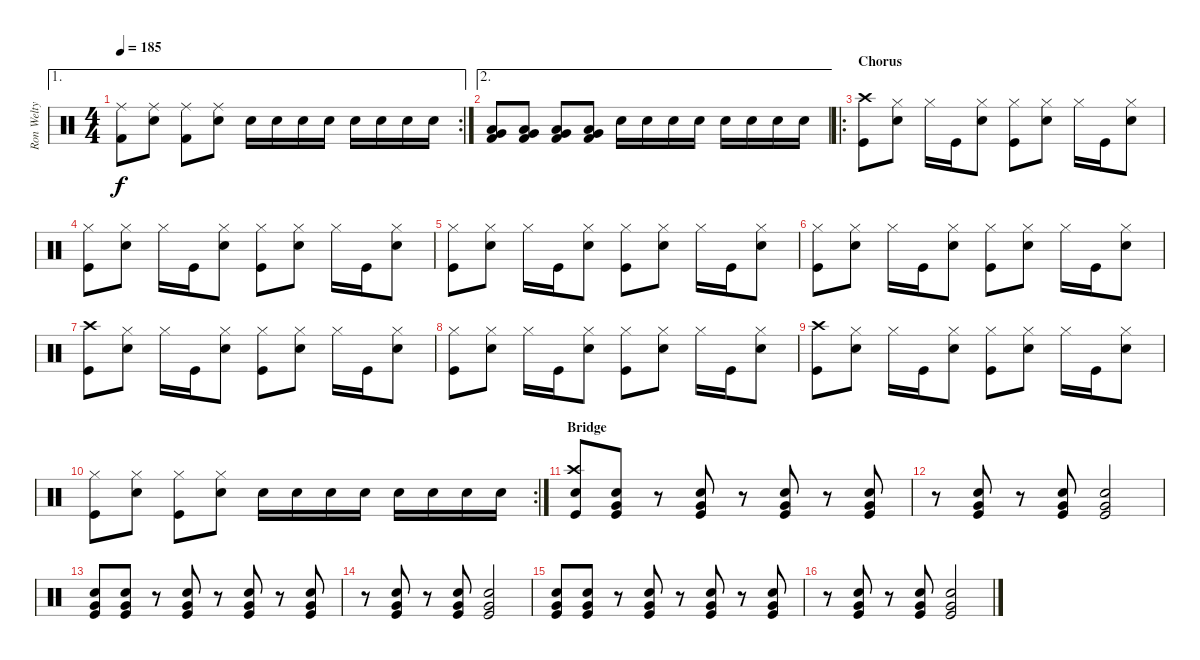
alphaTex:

\track ("Ron Welty" "Ron Welty") {instrument percussion}
\staff {score}
\articulation defaults
\ae 1
\rc 2
\ts (4 4)
\tempo 185
\clef neutral
\ks c
("Ride (middle)" "Kick (hit) 2").8{dy f} ("Ride (middle)" "Electric Snare (hit)").8 ("Ride (middle)" "Kick (hit) 2").8 ("Ride (middle)" "Electric Snare (hit)").8 "Electric Snare (hit)".16 "Electric Snare (hit)".16 "Electric Snare (hit)".16 "Electric Snare (hit)".16 "Electric Snare (hit)".16 "Electric Snare (hit)".16 "Electric Snare (hit)".16 "Electric Snare (hit)".16 |
\ae 2
("Low Tom (hit)" "Very Low Tom (hit)" "Kick (hit) 2").8 ("Low Tom (hit)" "Very Low Tom (hit)" "Kick (hit) 2").8 ("Low Tom (hit)" "Very Low Tom (hit)" "Kick (hit) 2").8 ("Low Tom (hit)" "Very Low Tom (hit)" "Kick (hit) 2").8 "Electric Snare (hit)".16 "Electric Snare (hit)".16 "Electric Snare (hit)".16 "Electric Snare (hit)".16 "Electric Snare (hit)".16 "Electric Snare (hit)".16 "Electric Snare (hit)".16 "Electric Snare (hit)".16 |
\ro
\section ("" "Chorus")
("Crash high (hit)" "Kick (hit)").8 ("Hi-Hat (closed)" "Electric Snare (hit)").8 "Hi-Hat (closed)".16 "Kick (hit)".16 ("Hi-Hat (closed)" "Electric Snare (hit)").8 ("Hi-Hat (closed)" "Kick (hit)").8 ("Hi-Hat (closed)" "Electric Snare (hit)").8 "Hi-Hat (closed)".16 "Kick (hit)".16 ("Hi-Hat (closed)" "Electric Snare (hit)").8 |
("Hi-Hat (closed)" "Kick (hit)").8 ("Hi-Hat (closed)" "Electric Snare (hit)").8 "Hi-Hat (closed)".16 "Kick (hit)".16 ("Hi-Hat (closed)" "Electric Snare (hit)").8 ("Hi-Hat (closed)" "Kick (hit)").8 ("Hi-Hat (closed)" "Electric Snare (hit)").8 "Hi-Hat (closed)".16 "Kick (hit)".16 ("Hi-Hat (closed)" "Electric Snare (hit)").8 |
("Hi-Hat (closed)" "Kick (hit)").8 ("Hi-Hat (closed)" "Electric Snare (hit)").8 "Hi-Hat (closed)".16 "Kick (hit)".16 ("Hi-Hat (closed)" "Electric Snare (hit)").8 ("Hi-Hat (closed)" "Kick (hit)").8 ("Hi-Hat (closed)" "Electric Snare (hit)").8 "Hi-Hat (closed)".16 "Kick (hit)".16 ("Hi-Hat (closed)" "Electric Snare (hit)").8 |
("Hi-Hat (closed)" "Kick (hit)").8 ("Hi-Hat (closed)" "Electric Snare (hit)").8 "Hi-Hat (closed)".16 "Kick (hit)".16 ("Hi-Hat (closed)" "Electric Snare (hit)").8 ("Hi-Hat (closed)" "Kick (hit)").8 ("Hi-Hat (closed)" "Electric Snare (hit)").8 "Hi-Hat (closed)".16 "Kick (hit)".16 ("Hi-Hat (closed)" "Electric Snare (hit)").8 |
("Crash high (hit)" "Kick (hit)").8 ("Hi-Hat (closed)" "Electric Snare (hit)").8 "Hi-Hat (closed)".16 "Kick (hit)".16 ("Hi-Hat (closed)" "Electric Snare (hit)").8 ("Hi-Hat (closed)" "Kick (hit)").8 ("Hi-Hat (closed)" "Electric Snare (hit)").8 "Hi-Hat (closed)".16 "Kick (hit)".16 ("Hi-Hat (closed)" "Electric Snare (hit)").8 |
("Hi-Hat (closed)" "Kick (hit)").8 ("Hi-Hat (closed)" "Electric Snare (hit)").8 "Hi-Hat (closed)".16 "Kick (hit)".16 ("Hi-Hat (closed)" "Electric Snare (hit)").8 ("Hi-Hat (closed)" "Kick (hit)").8 ("Hi-Hat (closed)" "Electric Snare (hit)").8 "Hi-Hat (closed)".16 "Kick (hit)".16 ("Hi-Hat (closed)" "Electric Snare (hit)").8 |
("Crash high (hit)" "Kick (hit)").8 ("Hi-Hat (closed)" "Electric Snare (hit)").8 "Hi-Hat (closed)".16 "Kick (hit)".16 ("Hi-Hat (closed)" "Electric Snare (hit)").8 ("Hi-Hat (closed)" "Kick (hit)").8 ("Hi-Hat (closed)" "Electric Snare (hit)").8 "Hi-Hat (closed)".16 "Kick (hit)".16 ("Hi-Hat (closed)" "Electric Snare (hit)").8 |
\rc 2
("Hi-Hat (closed)" "Kick (hit)").8 ("Hi-Hat (closed)" "Electric Snare (hit)").8 ("Hi-Hat (closed)" "Kick (hit)").8 ("Hi-Hat (closed)" "Electric Snare (hit)").8 "Electric Snare (hit)".16 "Electric Snare (hit)".16 "Electric Snare (hit)".16 "Electric Snare (hit)".16 "Electric Snare (hit)".16 "Electric Snare (hit)".16 "Electric Snare (hit)".16 "Electric Snare (hit)".16 |
\section ("" "Bridge")
("Crash high (hit)" "Electric Snare (hit)" "Kick (hit)").8 ("Very Low Tom (hit)" "Electric Snare (hit)" "Kick (hit)").8 r.8 ("Very Low Tom (hit)" "Electric Snare (hit)" "Kick (hit)").8 r.8 ("Very Low Tom (hit)" "Electric Snare (hit)" "Kick (hit)").8 r.8 ("Very Low Tom (hit)" "Electric Snare (hit)" "Kick (hit)").8 |
r.8 ("Very Low Tom (hit)" "Electric Snare (hit)" "Kick (hit)").8 r.8 ("Very Low Tom (hit)" "Electric Snare (hit)" "Kick (hit)").8 ("Very Low Tom (hit)" "Electric Snare (hit)" "Kick (hit)").2 |
("Very Low Tom (hit)" "Electric Snare (hit)" "Kick (hit)").8 ("Very Low Tom (hit)" "Electric Snare (hit)" "Kick (hit)").8 r.8 ("Very Low Tom (hit)" "Electric Snare (hit)" "Kick (hit)").8 r.8 ("Very Low Tom (hit)" "Electric Snare (hit)" "Kick (hit)").8 r.8 ("Very Low Tom (hit)" "Electric Snare (hit)" "Kick (hit)").8 |
r.8 ("Very Low Tom (hit)" "Electric Snare (hit)" "Kick (hit)").8 r.8 ("Very Low Tom (hit)" "Electric Snare (hit)" "Kick (hit)").8 ("Very Low Tom (hit)" "Electric Snare (hit)" "Kick (hit)").2 |
("Very Low Tom (hit)" "Electric Snare (hit)" "Kick (hit)").8 ("Very Low Tom (hit)" "Electric Snare (hit)" "Kick (hit)").8 r.8 ("Very Low Tom (hit)" "Electric Snare (hit)" "Kick (hit)").8 r.8 ("Very Low Tom (hit)" "Electric Snare (hit)" "Kick (hit)").8 r.8 ("Very Low Tom (hit)" "Electric Snare (hit)" "Kick (hit)").8 |
r.8 ("Very Low Tom (hit)" "Electric Snare (hit)" "Kick (hit)").8 r.8 ("Very Low Tom (hit)" "Electric Snare (hit)" "Kick (hit)").8 ("Very Low Tom (hit)" "Electric Snare (hit)" "Kick (hit)").2
